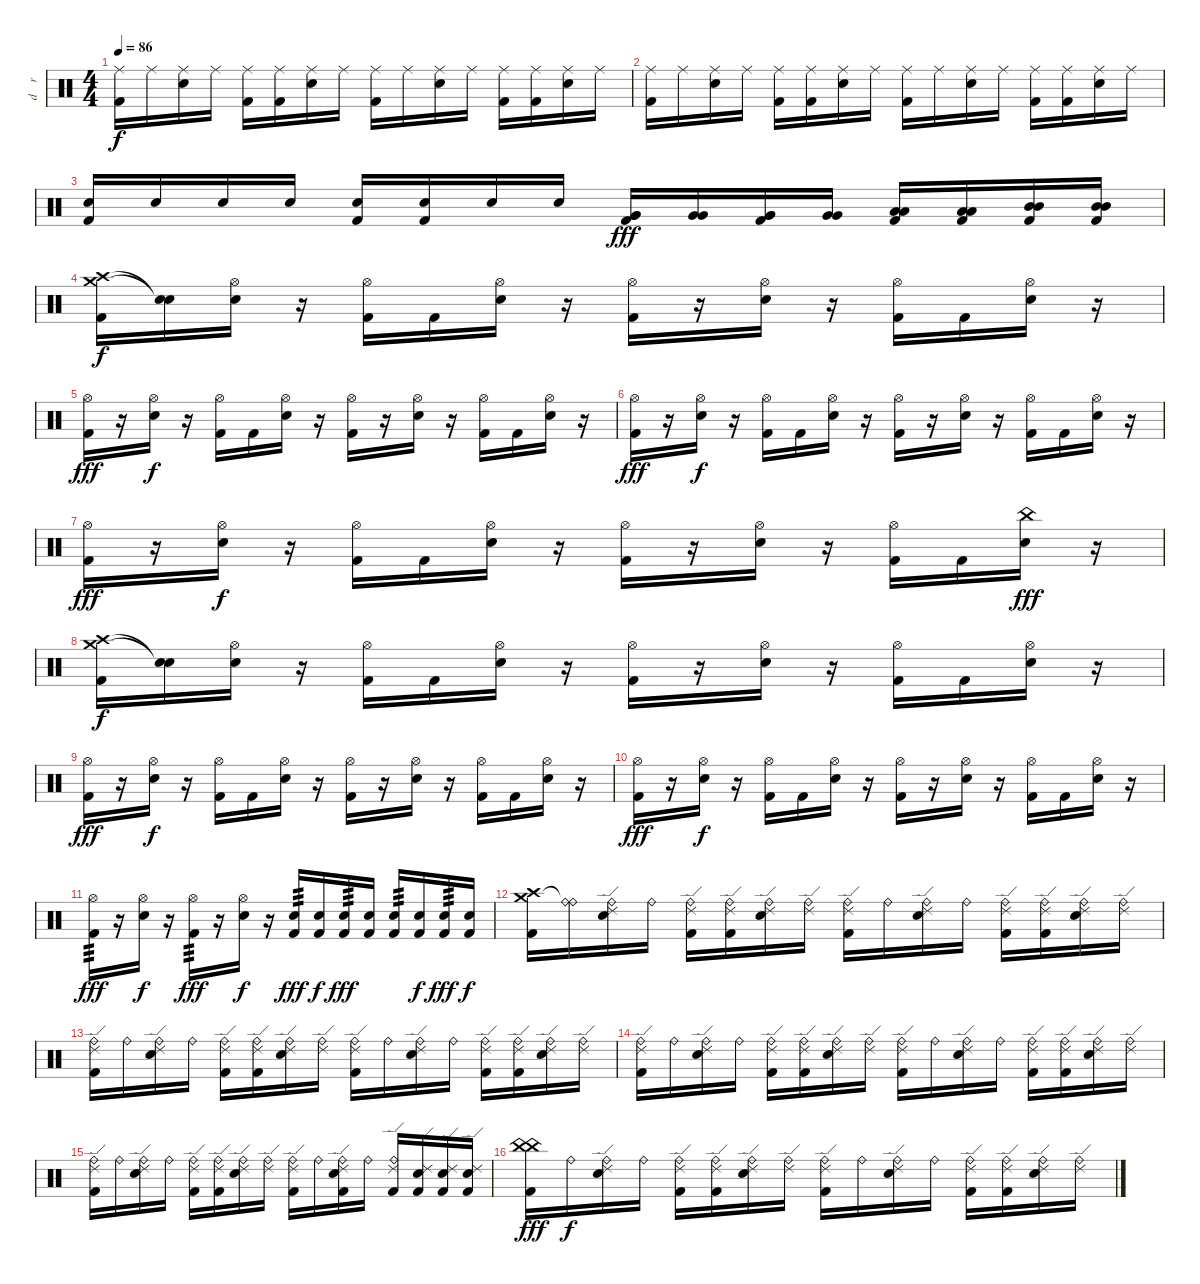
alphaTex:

\track ("d    r     u    m    s" "d    r    ") {instrument percussion}
\staff {score}
\articulation defaults
\ts (4 4)
\tempo 86
\clef neutral
\ks c
("Ride (middle)" "Kick (hit) 2").16{dy f} "Ride (middle)".16 ("Ride (middle)" "Electric Snare (hit)").16 "Ride (middle)".16 ("Ride (middle)" "Kick (hit) 2").16 ("Ride (middle)" "Kick (hit) 2").16 ("Ride (middle)" "Electric Snare (hit)").16 "Ride (middle)".16 ("Ride (middle)" "Kick (hit) 2").16 "Ride (middle)".16 ("Ride (middle)" "Electric Snare (hit)").16 "Ride (middle)".16 ("Ride (middle)" "Kick (hit) 2").16 ("Ride (middle)" "Kick (hit) 2").16 ("Ride (middle)" "Electric Snare (hit)").16 "Ride (middle)".16 |
("Ride (middle)" "Kick (hit) 2").16 "Ride (middle)".16 ("Ride (middle)" "Electric Snare (hit)").16 "Ride (middle)".16 ("Ride (middle)" "Kick (hit) 2").16 ("Ride (middle)" "Kick (hit) 2").16 ("Ride (middle)" "Electric Snare (hit)").16 "Ride (middle)".16 ("Ride (middle)" "Kick (hit) 2").16 "Ride (middle)".16 ("Ride (middle)" "Electric Snare (hit)").16 "Ride (middle)".16 ("Ride (middle)" "Kick (hit) 2").16 ("Ride (middle)" "Kick (hit) 2").16 ("Ride (middle)" "Electric Snare (hit)").16 "Ride (middle)".16 |
("Electric Snare (hit)" "Kick (hit) 2").16 "Electric Snare (hit)".16 "Electric Snare (hit)".16 "Electric Snare (hit)".16 ("Electric Snare (hit)" "Kick (hit) 2").16 ("Electric Snare (hit)" "Kick (hit) 2").16 "Electric Snare (hit)".16 "Electric Snare (hit)".16 ("Very Low Tom (hit)" "Very Low Tom (hit)" "Kick (hit) 2").16{dy fff} ("Very Low Tom (hit)" "Very Low Tom (hit)").16 ("Very Low Tom (hit)" "Very Low Tom (hit)" "Kick (hit) 2").16 ("Very Low Tom (hit)" "Very Low Tom (hit)").16 ("Low Tom (hit)" "Low Tom (hit)" "Kick (hit) 2").16 ("Low Tom (hit)" "Low Tom (hit)" "Kick (hit) 2").16 ("Mid Tom (hit)" "Mid Tom (hit)" "Kick (hit) 2").16 ("Mid Tom (hit)" "Mid Tom (hit)" "Kick (hit) 2").16 |
("Crash high (hit)" "Crash medium (hit)" "Kick (hit) 2").16{dy f} ("Snare (hit)"{t} "Snare (hit)"{t}).16 ("Hi-Hat (open)" "Electric Snare (hit)").16 r.16 ("Hi-Hat (open)" "Kick (hit) 2").16 "Kick (hit) 2".16 ("Hi-Hat (open)" "Electric Snare (hit)").16 r.16 ("Hi-Hat (open)" "Kick (hit) 2").16 r.16 ("Hi-Hat (open)" "Electric Snare (hit)").16 r.16 ("Hi-Hat (open)" "Kick (hit) 2").16 "Kick (hit) 2".16 ("Hi-Hat (open)" "Electric Snare (hit)").16 r.16 |
("Hi-Hat (open)" "Kick (hit) 2").16{dy fff} r.16 ("Hi-Hat (open)" "Electric Snare (hit)").16{dy f} r.16 ("Hi-Hat (open)" "Kick (hit) 2").16 "Kick (hit) 2".16 ("Hi-Hat (open)" "Electric Snare (hit)").16 r.16 ("Hi-Hat (open)" "Kick (hit) 2").16 r.16 ("Hi-Hat (open)" "Electric Snare (hit)").16 r.16 ("Hi-Hat (open)" "Kick (hit) 2").16 "Kick (hit) 2".16 ("Hi-Hat (open)" "Electric Snare (hit)").16 r.16 |
("Hi-Hat (open)" "Kick (hit) 2").16{dy fff} r.16 ("Hi-Hat (open)" "Electric Snare (hit)").16{dy f} r.16 ("Hi-Hat (open)" "Kick (hit) 2").16 "Kick (hit) 2".16 ("Hi-Hat (open)" "Electric Snare (hit)").16 r.16 ("Hi-Hat (open)" "Kick (hit) 2").16 r.16 ("Hi-Hat (open)" "Electric Snare (hit)").16 r.16 ("Hi-Hat (open)" "Kick (hit) 2").16 "Kick (hit) 2".16 ("Hi-Hat (open)" "Electric Snare (hit)").16 r.16 |
("Hi-Hat (open)" "Kick (hit) 2").16{dy fff} r.16 ("Hi-Hat (open)" "Electric Snare (hit)").16{dy f} r.16 ("Hi-Hat (open)" "Kick (hit) 2").16 "Kick (hit) 2".16 ("Hi-Hat (open)" "Electric Snare (hit)").16 r.16 ("Hi-Hat (open)" "Kick (hit) 2").16 r.16 ("Hi-Hat (open)" "Electric Snare (hit)").16 r.16 ("Hi-Hat (open)" "Kick (hit) 2").16 "Kick (hit) 2".16 ("China (hit)" "Electric Snare (hit)").16{dy fff} r.16 |
("Crash high (hit)" "Crash medium (hit)" "Kick (hit) 2").16{dy f} ("Snare (hit)"{t} "Snare (hit)"{t}).16 ("Hi-Hat (open)" "Electric Snare (hit)").16 r.16 ("Hi-Hat (open)" "Kick (hit) 2").16 "Kick (hit) 2".16 ("Hi-Hat (open)" "Electric Snare (hit)").16 r.16 ("Hi-Hat (open)" "Kick (hit) 2").16 r.16 ("Hi-Hat (open)" "Electric Snare (hit)").16 r.16 ("Hi-Hat (open)" "Kick (hit) 2").16 "Kick (hit) 2".16 ("Hi-Hat (open)" "Electric Snare (hit)").16 r.16 |
("Hi-Hat (open)" "Kick (hit) 2").16{dy fff} r.16 ("Hi-Hat (open)" "Electric Snare (hit)").16{dy f} r.16 ("Hi-Hat (open)" "Kick (hit) 2").16 "Kick (hit) 2".16 ("Hi-Hat (open)" "Electric Snare (hit)").16 r.16 ("Hi-Hat (open)" "Kick (hit) 2").16 r.16 ("Hi-Hat (open)" "Electric Snare (hit)").16 r.16 ("Hi-Hat (open)" "Kick (hit) 2").16 "Kick (hit) 2".16 ("Hi-Hat (open)" "Electric Snare (hit)").16 r.16 |
("Hi-Hat (open)" "Kick (hit) 2").16{dy fff} r.16 ("Hi-Hat (open)" "Electric Snare (hit)").16{dy f} r.16 ("Hi-Hat (open)" "Kick (hit) 2").16 "Kick (hit) 2".16 ("Hi-Hat (open)" "Electric Snare (hit)").16 r.16 ("Hi-Hat (open)" "Kick (hit) 2").16 r.16 ("Hi-Hat (open)" "Electric Snare (hit)").16 r.16 ("Hi-Hat (open)" "Kick (hit) 2").16 "Kick (hit) 2".16 ("Hi-Hat (open)" "Electric Snare (hit)").16 r.16 |
("Hi-Hat (open)" "Kick (hit) 2").16{tp 3 dy fff} r.16 ("Hi-Hat (open)" "Electric Snare (hit)").16{dy f} r.16 ("Hi-Hat (open)" "Kick (hit) 2").16{tp 3 dy fff} r.16 ("Hi-Hat (open)" "Electric Snare (hit)").16{dy f} r.16 ("Electric Snare (hit)" "Kick (hit) 2").16{tp 3 dy fff} ("Electric Snare (hit)" "Kick (hit) 2").16{dy f} ("Electric Snare (hit)" "Kick (hit) 2").16{tp 3 dy fff} ("Electric Snare (hit)" "Kick (hit) 2").16 ("Electric Snare (hit)" "Kick (hit) 2").16{tp 3} ("Electric Snare (hit)" "Kick (hit) 2").16{dy f} ("Electric Snare (hit)" "Kick (hit) 2").16{tp 3 dy fff} ("Electric Snare (hit)" "Kick (hit) 2").16{dy f} |
("Crash high (hit)" "Crash medium (hit)" "Kick (hit) 2").16 ("Ride (bell)" "Ride (bell)"{t}).16 ("Ride (bell)" "Ride (edge) 2" "Electric Snare (hit)").16 "Ride (bell)".16 ("Ride (bell)" "Ride (edge) 2" "Kick (hit) 2").16 ("Ride (bell)" "Ride (edge) 2" "Kick (hit) 2").16 ("Ride (bell)" "Ride (edge) 2" "Electric Snare (hit)").16 ("Ride (bell)" "Ride (edge) 2").16 ("Ride (bell)" "Ride (edge) 2" "Kick (hit) 2").16 "Ride (bell)".16 ("Ride (bell)" "Ride (edge) 2" "Electric Snare (hit)").16 "Ride (bell)".16 ("Ride (bell)" "Ride (edge) 2" "Kick (hit) 2").16 ("Ride (bell)" "Ride (edge) 2" "Kick (hit) 2").16 ("Ride (bell)" "Ride (edge) 2" "Electric Snare (hit)").16 ("Ride (bell)" "Ride (edge) 2").16 |
("Ride (bell)" "Ride (edge) 2" "Kick (hit) 2").16 "Ride (bell)".16 ("Ride (bell)" "Ride (edge) 2" "Electric Snare (hit)").16 "Ride (bell)".16 ("Ride (bell)" "Ride (edge) 2" "Kick (hit) 2").16 ("Ride (bell)" "Ride (edge) 2" "Kick (hit) 2").16 ("Ride (bell)" "Ride (edge) 2" "Electric Snare (hit)").16 ("Ride (bell)" "Ride (edge) 2").16 ("Ride (bell)" "Ride (edge) 2" "Kick (hit) 2").16 "Ride (bell)".16 ("Ride (bell)" "Ride (edge) 2" "Electric Snare (hit)").16 "Ride (bell)".16 ("Ride (bell)" "Ride (edge) 2" "Kick (hit) 2").16 ("Ride (bell)" "Ride (edge) 2" "Kick (hit) 2").16 ("Ride (bell)" "Ride (edge) 2" "Electric Snare (hit)").16 ("Ride (bell)" "Ride (edge) 2").16 |
("Ride (bell)" "Ride (edge) 2" "Kick (hit) 2").16 "Ride (bell)".16 ("Ride (bell)" "Ride (edge) 2" "Electric Snare (hit)").16 "Ride (bell)".16 ("Ride (bell)" "Ride (edge) 2" "Kick (hit) 2").16 ("Ride (bell)" "Ride (edge) 2" "Kick (hit) 2").16 ("Ride (bell)" "Ride (edge) 2" "Electric Snare (hit)").16 ("Ride (bell)" "Ride (edge) 2").16 ("Ride (bell)" "Ride (edge) 2" "Kick (hit) 2").16 "Ride (bell)".16 ("Ride (bell)" "Ride (edge) 2" "Electric Snare (hit)").16 "Ride (bell)".16 ("Ride (bell)" "Ride (edge) 2" "Kick (hit) 2").16 ("Ride (bell)" "Ride (edge) 2" "Kick (hit) 2").16 ("Ride (bell)" "Ride (edge) 2" "Electric Snare (hit)").16 ("Ride (bell)" "Ride (edge) 2").16 |
("Ride (bell)" "Ride (edge) 2" "Kick (hit) 2").16 "Ride (bell)".16 ("Ride (bell)" "Ride (edge) 2" "Electric Snare (hit)").16 "Ride (bell)".16 ("Ride (bell)" "Ride (edge) 2" "Kick (hit) 2").16 ("Ride (bell)" "Ride (edge) 2" "Kick (hit) 2").16 ("Ride (bell)" "Ride (edge) 2" "Electric Snare (hit)").16 ("Ride (bell)" "Ride (edge) 2").16 ("Ride (bell)" "Ride (edge) 2" "Kick (hit) 2").16 "Ride (bell)".16 ("Ride (bell)" "Ride (edge) 2" "Electric Snare (hit)" "Kick (hit) 2").16 "Ride (bell)".16 ("Ride (bell)" "Ride (edge) 2" "Kick (hit) 2").16 ("Ride (edge) 2" "Electric Snare (hit)" "Kick (hit) 2").16 ("Ride (edge) 2" "Electric Snare (hit)" "Kick (hit) 2").16 ("Ride (edge) 2" "Electric Snare (hit)" "Kick (hit) 2").16 |
("China (hit)" "China (hit)" "Kick (hit) 2").16{dy fff} "Ride (bell)".16{dy f} ("Ride (bell)" "Ride (edge) 2" "Electric Snare (hit)").16 "Ride (bell)".16 ("Ride (bell)" "Ride (edge) 2" "Kick (hit) 2").16 ("Ride (bell)" "Ride (edge) 2" "Kick (hit) 2").16 ("Ride (bell)" "Ride (edge) 2" "Electric Snare (hit)").16 ("Ride (bell)" "Ride (edge) 2").16 ("Ride (bell)" "Ride (edge) 2" "Kick (hit) 2").16 "Ride (bell)".16 ("Ride (bell)" "Ride (edge) 2" "Electric Snare (hit)").16 "Ride (bell)".16 ("Ride (bell)" "Ride (edge) 2" "Kick (hit) 2").16 ("Ride (bell)" "Ride (edge) 2" "Kick (hit) 2").16 ("Ride (bell)" "Ride (edge) 2" "Electric Snare (hit)").16 ("Ride (bell)" "Ride (edge) 2").16
